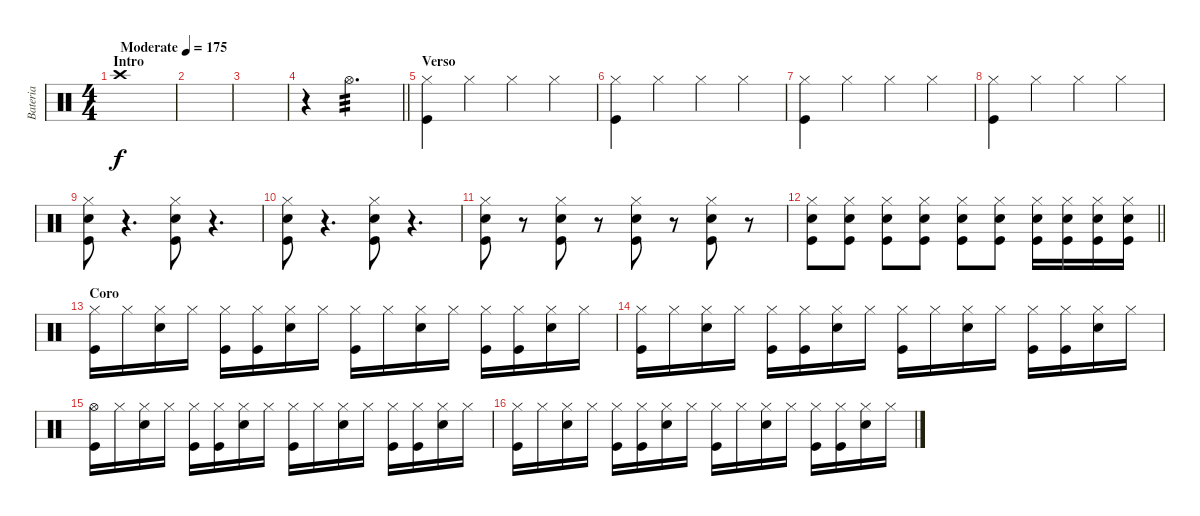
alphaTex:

\track ("Bateria" "Bateria") {instrument percussion}
\staff {score}
\articulation defaults
\ts (4 4)
\section ("" "Intro")
\tempo (175 "Moderate")
\clef neutral
\ks c "Crash high (hit)".1{dy f}
|
|
|
\barLineRight lightlight
r.4 "Hi-Hat (open)".2{d tp 3} |
\section ("" "Verso")
("Hi-Hat (closed)" "Kick (hit)").4 "Hi-Hat (closed)".4 "Hi-Hat (closed)".4 "Hi-Hat (closed)".4 |
("Hi-Hat (closed)" "Kick (hit)").4 "Hi-Hat (closed)".4 "Hi-Hat (closed)".4 "Hi-Hat (closed)".4 |
("Hi-Hat (closed)" "Kick (hit)").4 "Hi-Hat (closed)".4 "Hi-Hat (closed)".4 "Hi-Hat (closed)".4 |
("Hi-Hat (closed)" "Kick (hit)").4 "Hi-Hat (closed)".4 "Hi-Hat (closed)".4 "Hi-Hat (closed)".4 |
("Hi-Hat (closed)" "Electric Snare (hit)" "Kick (hit)").8 r.4{d} ("Hi-Hat (closed)" "Electric Snare (hit)" "Kick (hit)").8 r.4{d} |
("Hi-Hat (closed)" "Electric Snare (hit)" "Kick (hit)").8 r.4{d} ("Hi-Hat (closed)" "Electric Snare (hit)" "Kick (hit)").8 r.4{d} |
("Hi-Hat (closed)" "Electric Snare (hit)" "Kick (hit)").8 r.8 ("Hi-Hat (closed)" "Electric Snare (hit)" "Kick (hit)").8 r.8 ("Hi-Hat (closed)" "Electric Snare (hit)" "Kick (hit)").8 r.8 ("Hi-Hat (closed)" "Electric Snare (hit)" "Kick (hit)").8 r.8 |
\barLineRight lightlight
("Hi-Hat (closed)" "Electric Snare (hit)" "Kick (hit)").8 ("Hi-Hat (closed)" "Electric Snare (hit)" "Kick (hit)").8 ("Hi-Hat (closed)" "Electric Snare (hit)" "Kick (hit)").8 ("Hi-Hat (closed)" "Electric Snare (hit)" "Kick (hit)").8 ("Hi-Hat (closed)" "Electric Snare (hit)" "Kick (hit)").8 ("Hi-Hat (closed)" "Electric Snare (hit)" "Kick (hit)").8 ("Hi-Hat (closed)" "Electric Snare (hit)" "Kick (hit)").16 ("Hi-Hat (closed)" "Electric Snare (hit)" "Kick (hit)").16 ("Hi-Hat (closed)" "Electric Snare (hit)" "Kick (hit)").16 ("Hi-Hat (closed)" "Electric Snare (hit)" "Kick (hit)").16 |
\section ("" "Coro")
("Hi-Hat (closed)" "Kick (hit)").16 "Hi-Hat (closed)".16 ("Hi-Hat (closed)" "Electric Snare (hit)").16 "Hi-Hat (closed)".16 ("Hi-Hat (closed)" "Kick (hit)").16 ("Hi-Hat (closed)" "Kick (hit)").16 ("Hi-Hat (closed)" "Electric Snare (hit)").16 "Hi-Hat (closed)".16 ("Hi-Hat (closed)" "Kick (hit)").16 "Hi-Hat (closed)".16 ("Hi-Hat (closed)" "Electric Snare (hit)").16 "Hi-Hat (closed)".16 ("Hi-Hat (closed)" "Kick (hit)").16 ("Hi-Hat (closed)" "Kick (hit)").16 ("Hi-Hat (closed)" "Electric Snare (hit)").16 "Hi-Hat (closed)".16 |
("Hi-Hat (closed)" "Kick (hit)").16 "Hi-Hat (closed)".16 ("Hi-Hat (closed)" "Electric Snare (hit)").16 "Hi-Hat (closed)".16 ("Hi-Hat (closed)" "Kick (hit)").16 ("Hi-Hat (closed)" "Kick (hit)").16 ("Hi-Hat (closed)" "Electric Snare (hit)").16 "Hi-Hat (closed)".16 ("Hi-Hat (closed)" "Kick (hit)").16 "Hi-Hat (closed)".16 ("Hi-Hat (closed)" "Electric Snare (hit)").16 "Hi-Hat (closed)".16 ("Hi-Hat (closed)" "Kick (hit)").16 ("Hi-Hat (closed)" "Kick (hit)").16 ("Hi-Hat (closed)" "Electric Snare (hit)").16 "Hi-Hat (closed)".16 |
("Hi-Hat (open)" "Kick (hit)").16 "Hi-Hat (closed)".16 ("Hi-Hat (closed)" "Electric Snare (hit)").16 "Hi-Hat (closed)".16 ("Hi-Hat (closed)" "Kick (hit)").16 ("Hi-Hat (closed)" "Kick (hit)").16 ("Hi-Hat (closed)" "Electric Snare (hit)").16 "Hi-Hat (closed)".16 ("Hi-Hat (closed)" "Kick (hit)").16 "Hi-Hat (closed)".16 ("Hi-Hat (closed)" "Electric Snare (hit)").16 "Hi-Hat (closed)".16 ("Hi-Hat (closed)" "Kick (hit)").16 ("Hi-Hat (closed)" "Kick (hit)").16 ("Hi-Hat (closed)" "Electric Snare (hit)").16 "Hi-Hat (closed)".16 |
("Hi-Hat (closed)" "Kick (hit)").16 "Hi-Hat (closed)".16 ("Hi-Hat (closed)" "Electric Snare (hit)").16 "Hi-Hat (closed)".16 ("Hi-Hat (closed)" "Kick (hit)").16 ("Hi-Hat (closed)" "Kick (hit)").16 ("Hi-Hat (closed)" "Electric Snare (hit)").16 "Hi-Hat (closed)".16 ("Hi-Hat (closed)" "Kick (hit)").16 "Hi-Hat (closed)".16 ("Hi-Hat (closed)" "Electric Snare (hit)").16 "Hi-Hat (closed)".16 ("Hi-Hat (closed)" "Kick (hit)").16 ("Hi-Hat (closed)" "Kick (hit)").16 ("Hi-Hat (closed)" "Electric Snare (hit)").16 "Hi-Hat (closed)".16
